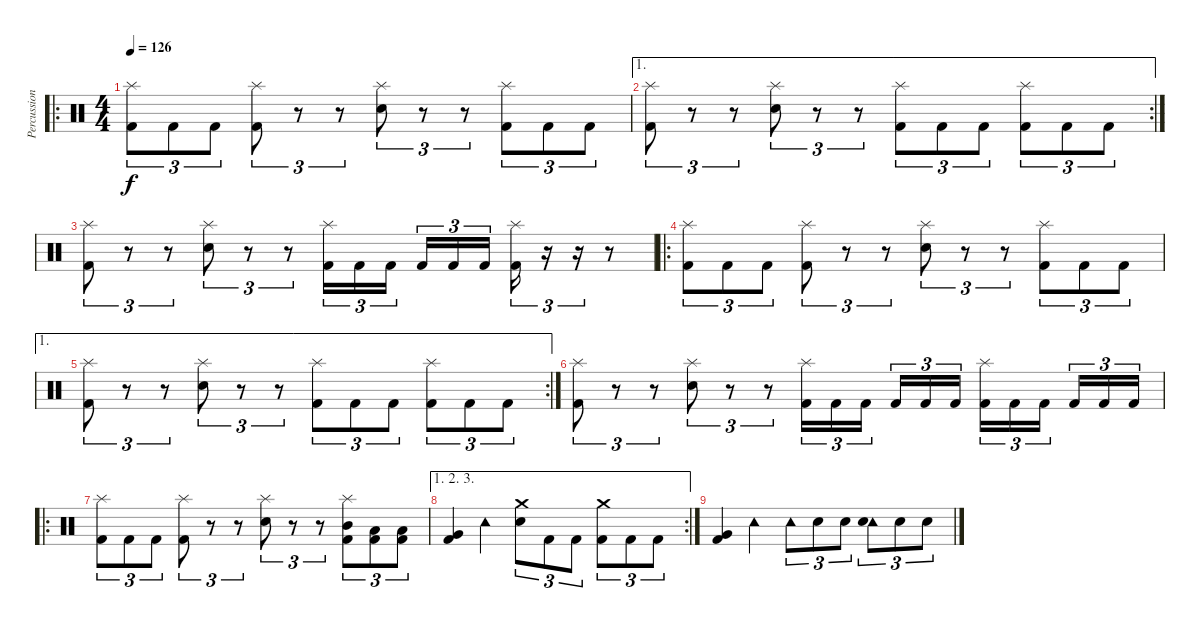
\track ("Percussions" "Percussion") {instrument percussion}
\staff {score}
\articulation defaults
\ro
\ts (4 4)
\tempo 126
\clef neutral
\ks c
("Splash (hit)" "Kick (hit) 2").8{tu (3 2) dy f} "Kick (hit) 2".8{tu (3 2)} "Kick (hit) 2".8{tu (3 2)} ("Splash (hit)" "Kick (hit) 2").8{tu (3 2)} r.8{tu (3 2)} r.8{tu (3 2)} ("Splash (hit)" "Electric Snare (hit)").8{tu (3 2)} r.8{tu (3 2)} r.8{tu (3 2)} ("Splash (hit)" "Kick (hit) 2").8{tu (3 2)} "Kick (hit) 2".8{tu (3 2)} "Kick (hit) 2".8{tu (3 2)} |
\ae 1
\rc 2
("Splash (hit)" "Kick (hit) 2").8{tu (3 2)} r.8{tu (3 2)} r.8{tu (3 2)} ("Splash (hit)" "Electric Snare (hit)").8{tu (3 2)} r.8{tu (3 2)} r.8{tu (3 2)} ("Splash (hit)" "Kick (hit) 2").8{tu (3 2)} "Kick (hit) 2".8{tu (3 2)} "Kick (hit) 2".8{tu (3 2)} ("Splash (hit)" "Kick (hit) 2").8{tu (3 2)} "Kick (hit) 2".8{tu (3 2)} "Kick (hit) 2".8{tu (3 2)} |
("Splash (hit)" "Kick (hit) 2").8{tu (3 2)} r.8{tu (3 2)} r.8{tu (3 2)} ("Splash (hit)" "Electric Snare (hit)").8{tu (3 2)} r.8{tu (3 2)} r.8{tu (3 2)} ("Splash (hit)" "Kick (hit) 2").16{tu (3 2)} "Kick (hit) 2".16{tu (3 2)} "Kick (hit) 2".16{tu (3 2)} "Kick (hit) 2".16{tu (3 2)} "Kick (hit) 2".16{tu (3 2)} "Kick (hit) 2".16{tu (3 2)} ("Splash (hit)" "Kick (hit) 2").16{tu (3 2)} r.16{tu (3 2)} r.16{tu (3 2)} r.8 |
\ro
("Splash (hit)" "Kick (hit) 2").8{tu (3 2)} "Kick (hit) 2".8{tu (3 2)} "Kick (hit) 2".8{tu (3 2)} ("Splash (hit)" "Kick (hit) 2").8{tu (3 2)} r.8{tu (3 2)} r.8{tu (3 2)} ("Splash (hit)" "Electric Snare (hit)").8{tu (3 2)} r.8{tu (3 2)} r.8{tu (3 2)} ("Splash (hit)" "Kick (hit) 2").8{tu (3 2)} "Kick (hit) 2".8{tu (3 2)} "Kick (hit) 2".8{tu (3 2)} |
\ae 1
\rc 2
("Splash (hit)" "Kick (hit) 2").8{tu (3 2)} r.8{tu (3 2)} r.8{tu (3 2)} ("Splash (hit)" "Electric Snare (hit)").8{tu (3 2)} r.8{tu (3 2)} r.8{tu (3 2)} ("Splash (hit)" "Kick (hit) 2").8{tu (3 2)} "Kick (hit) 2".8{tu (3 2)} "Kick (hit) 2".8{tu (3 2)} ("Splash (hit)" "Kick (hit) 2").8{tu (3 2)} "Kick (hit) 2".8{tu (3 2)} "Kick (hit) 2".8{tu (3 2)} |
("Splash (hit)" "Kick (hit) 2").8{tu (3 2)} r.8{tu (3 2)} r.8{tu (3 2)} ("Splash (hit)" "Electric Snare (hit)").8{tu (3 2)} r.8{tu (3 2)} r.8{tu (3 2)} ("Splash (hit)" "Kick (hit) 2").16{tu (3 2)} "Kick (hit) 2".16{tu (3 2)} "Kick (hit) 2".16{tu (3 2)} "Kick (hit) 2".16{tu (3 2)} "Kick (hit) 2".16{tu (3 2)} "Kick (hit) 2".16{tu (3 2)} ("Splash (hit)" "Kick (hit) 2").16{tu (3 2)} "Kick (hit) 2".16{tu (3 2)} "Kick (hit) 2".16{tu (3 2)} "Kick (hit) 2".16{tu (3 2)} "Kick (hit) 2".16{tu (3 2)} "Kick (hit) 2".16{tu (3 2)} |
\ro
("Splash (hit)" "Kick (hit) 2").8{tu (3 2)} "Kick (hit) 2".8{tu (3 2)} "Kick (hit) 2".8{tu (3 2)} ("Splash (hit)" "Kick (hit) 2").8{tu (3 2)} r.8{tu (3 2)} r.8{tu (3 2)} ("Splash (hit)" "Electric Snare (hit)").8{tu (3 2)} r.8{tu (3 2)} r.8{tu (3 2)} ("Splash (hit)" "Mid Tom (hit)" "Kick (hit) 2").8{tu (3 2)} ("Low Tom (hit)" "Kick (hit) 2").8{tu (3 2)} ("Low Tom (hit)" "Kick (hit) 2").8{tu (3 2)} |
\ae (1 2 3)
\rc 2
("Very Low Tom (hit)" "Kick (hit) 2").4 "Tambourine (hit)".4 ("Crash medium (hit)" "Electric Snare (hit)").8{tu (3 2)} "Kick (hit) 2".8{tu (3 2)} "Kick (hit) 2".8{tu (3 2)} ("Crash medium (hit)" "Kick (hit) 2").8{tu (3 2)} "Kick (hit) 2".8{tu (3 2)} "Kick (hit) 2".8{tu (3 2)} |
("Very Low Tom (hit)" "Kick (hit) 2").4 "Tambourine (hit)".4 "Tambourine (hit)".8{tu (3 2)} "Electric Snare (hit)".8{tu (3 2)} "Electric Snare (hit)".8{tu (3 2)} ("Tambourine (hit)" "Electric Snare (hit)").8{tu (3 2)} "Electric Snare (hit)".8{tu (3 2)} "Electric Snare (hit)".8{tu (3 2)}
